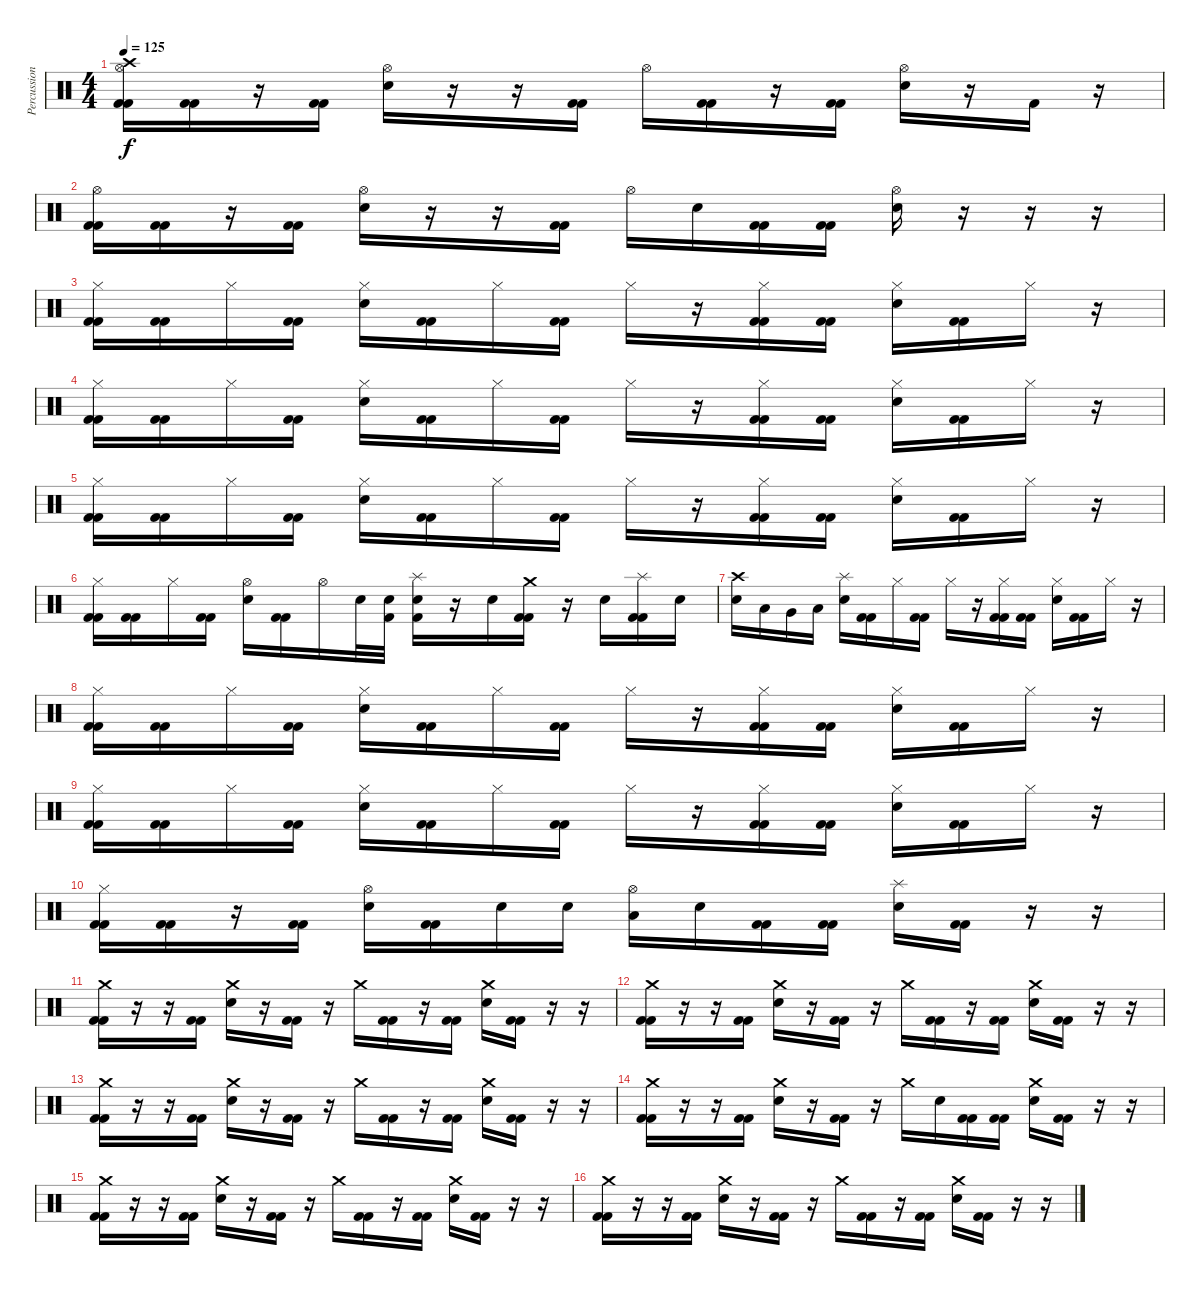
\track ("Percussion" "Percussion") {instrument percussion}
\staff {score}
\articulation defaults
\ts (4 4)
\tempo 125
\clef neutral
\ks c
("Hi-Hat (open)" "Crash high (hit)" "Kick (hit) 2" "Kick (hit) 2").16{dy f} ("Kick (hit) 2" "Kick (hit) 2").16 r.16 ("Kick (hit) 2" "Kick (hit) 2").16 ("Hi-Hat (open)" "Electric Snare (hit)").16 r.16 r.16 ("Kick (hit) 2" "Kick (hit) 2").16 "Hi-Hat (open)".16 ("Kick (hit) 2" "Kick (hit) 2").16 r.16 ("Kick (hit) 2" "Kick (hit) 2").16 ("Hi-Hat (open)" "Electric Snare (hit)").16 r.16 "Kick (hit) 2".16 r.16 |
("Hi-Hat (open)" "Kick (hit) 2" "Kick (hit) 2").16 ("Kick (hit) 2" "Kick (hit) 2").16 r.16 ("Kick (hit) 2" "Kick (hit) 2").16 ("Hi-Hat (open)" "Electric Snare (hit)").16 r.16 r.16 ("Kick (hit) 2" "Kick (hit) 2").16 "Hi-Hat (open)".16 "Electric Snare (hit)".16 ("Kick (hit) 2" "Kick (hit) 2").16 ("Kick (hit) 2" "Kick (hit) 2").16 ("Hi-Hat (open)" "Electric Snare (hit)").16 r.16 r.16 r.16 |
("Hi-Hat (closed)" "Kick (hit) 2" "Kick (hit) 2").16 ("Kick (hit) 2" "Kick (hit) 2").16 "Hi-Hat (closed)".16 ("Kick (hit) 2" "Kick (hit) 2").16 ("Hi-Hat (closed)" "Electric Snare (hit)").16 ("Kick (hit) 2" "Kick (hit) 2").16 "Hi-Hat (closed)".16 ("Kick (hit) 2" "Kick (hit) 2").16 "Hi-Hat (closed)".16 r.16 ("Hi-Hat (closed)" "Kick (hit) 2" "Kick (hit) 2").16 ("Kick (hit) 2" "Kick (hit) 2").16 ("Hi-Hat (closed)" "Electric Snare (hit)").16 ("Kick (hit) 2" "Kick (hit) 2").16 "Hi-Hat (closed)".16 r.16 |
("Hi-Hat (closed)" "Kick (hit) 2" "Kick (hit) 2").16 ("Kick (hit) 2" "Kick (hit) 2").16 "Hi-Hat (closed)".16 ("Kick (hit) 2" "Kick (hit) 2").16 ("Hi-Hat (closed)" "Electric Snare (hit)").16 ("Kick (hit) 2" "Kick (hit) 2").16 "Hi-Hat (closed)".16 ("Kick (hit) 2" "Kick (hit) 2").16 "Hi-Hat (closed)".16 r.16 ("Hi-Hat (closed)" "Kick (hit) 2" "Kick (hit) 2").16 ("Kick (hit) 2" "Kick (hit) 2").16 ("Hi-Hat (closed)" "Electric Snare (hit)").16 ("Kick (hit) 2" "Kick (hit) 2").16 "Hi-Hat (closed)".16 r.16 |
("Hi-Hat (closed)" "Kick (hit) 2" "Kick (hit) 2").16 ("Kick (hit) 2" "Kick (hit) 2").16 "Hi-Hat (closed)".16 ("Kick (hit) 2" "Kick (hit) 2").16 ("Hi-Hat (closed)" "Electric Snare (hit)").16 ("Kick (hit) 2" "Kick (hit) 2").16 "Hi-Hat (closed)".16 ("Kick (hit) 2" "Kick (hit) 2").16 "Hi-Hat (closed)".16 r.16 ("Hi-Hat (closed)" "Kick (hit) 2" "Kick (hit) 2").16 ("Kick (hit) 2" "Kick (hit) 2").16 ("Hi-Hat (closed)" "Electric Snare (hit)").16 ("Kick (hit) 2" "Kick (hit) 2").16 "Hi-Hat (closed)".16 r.16 |
("Hi-Hat (closed)" "Kick (hit) 2" "Kick (hit) 2").16 ("Kick (hit) 2" "Kick (hit) 2").16 "Hi-Hat (closed)".16 ("Kick (hit) 2" "Kick (hit) 2").16 ("Hi-Hat (open)" "Electric Snare (hit)").16 ("Kick (hit) 2" "Kick (hit) 2").16 "Hi-Hat (open)".16 "Electric Snare (hit)".32 ("Electric Snare (hit)" "Kick (hit) 2").32 ("Splash (hit)" "Electric Snare (hit)" "Kick (hit) 2").16 r.16 "Electric Snare (hit)".16 ("Crash medium (hit)" "Kick (hit) 2" "Kick (hit) 2").16 r.16 "Electric Snare (hit)".16 ("Splash (hit)" "Kick (hit) 2" "Kick (hit) 2").16 "Electric Snare (hit)".16 |
("Crash high (hit)" "Electric Snare (hit)").16 "Low Tom (hit)".16 "Very Low Tom (hit)".16 "Low Floor Tom (hit)".16 ("Splash (hit)" "Electric Snare (hit)").16 ("Kick (hit) 2" "Kick (hit) 2").16 "Hi-Hat (closed)".16 ("Kick (hit) 2" "Kick (hit) 2").16 "Hi-Hat (closed)".16 r.16 ("Hi-Hat (closed)" "Kick (hit) 2" "Kick (hit) 2").16 ("Kick (hit) 2" "Kick (hit) 2").16 ("Hi-Hat (closed)" "Electric Snare (hit)").16 ("Kick (hit) 2" "Kick (hit) 2").16 "Hi-Hat (closed)".16 r.16 |
("Hi-Hat (closed)" "Kick (hit) 2" "Kick (hit) 2").16 ("Kick (hit) 2" "Kick (hit) 2").16 "Hi-Hat (closed)".16 ("Kick (hit) 2" "Kick (hit) 2").16 ("Hi-Hat (closed)" "Electric Snare (hit)").16 ("Kick (hit) 2" "Kick (hit) 2").16 "Hi-Hat (closed)".16 ("Kick (hit) 2" "Kick (hit) 2").16 "Hi-Hat (closed)".16 r.16 ("Hi-Hat (closed)" "Kick (hit) 2" "Kick (hit) 2").16 ("Kick (hit) 2" "Kick (hit) 2").16 ("Hi-Hat (closed)" "Electric Snare (hit)").16 ("Kick (hit) 2" "Kick (hit) 2").16 "Hi-Hat (closed)".16 r.16 |
("Hi-Hat (closed)" "Kick (hit) 2" "Kick (hit) 2").16 ("Kick (hit) 2" "Kick (hit) 2").16 "Hi-Hat (closed)".16 ("Kick (hit) 2" "Kick (hit) 2").16 ("Hi-Hat (closed)" "Electric Snare (hit)").16 ("Kick (hit) 2" "Kick (hit) 2").16 "Hi-Hat (closed)".16 ("Kick (hit) 2" "Kick (hit) 2").16 "Hi-Hat (closed)".16 r.16 ("Hi-Hat (closed)" "Kick (hit) 2" "Kick (hit) 2").16 ("Kick (hit) 2" "Kick (hit) 2").16 ("Hi-Hat (closed)" "Electric Snare (hit)").16 ("Kick (hit) 2" "Kick (hit) 2").16 "Hi-Hat (closed)".16 r.16 |
("Hi-Hat (closed)" "Kick (hit) 2" "Kick (hit) 2").16 ("Kick (hit) 2" "Kick (hit) 2").16 r.16 ("Kick (hit) 2" "Kick (hit) 2").16 ("Hi-Hat (open)" "Electric Snare (hit)").16 ("Kick (hit) 2" "Kick (hit) 2").16 "Electric Snare (hit)".16 "Electric Snare (hit)".16 ("Hi-Hat (open)" "Low Tom (hit)").16 "Electric Snare (hit)".16 ("Kick (hit) 2" "Kick (hit) 2").16 ("Kick (hit) 2" "Kick (hit) 2").16 ("Splash (hit)" "Electric Snare (hit)").16 ("Kick (hit) 2" "Kick (hit) 2").16 r.16 r.16 |
("Crash medium (hit)" "Kick (hit) 2" "Kick (hit) 2").16 r.16 r.16 ("Kick (hit) 2" "Kick (hit) 2").16 ("Crash medium (hit)" "Electric Snare (hit)").16 r.16 ("Kick (hit) 2" "Kick (hit) 2").16 r.16 "Crash medium (hit)".16 ("Kick (hit) 2" "Kick (hit) 2").16 r.16 ("Kick (hit) 2" "Kick (hit) 2").16 ("Crash medium (hit)" "Electric Snare (hit)").16 ("Kick (hit) 2" "Kick (hit) 2").16 r.16 r.16 |
("Crash medium (hit)" "Kick (hit) 2" "Kick (hit) 2").16 r.16 r.16 ("Kick (hit) 2" "Kick (hit) 2").16 ("Crash medium (hit)" "Electric Snare (hit)").16 r.16 ("Kick (hit) 2" "Kick (hit) 2").16 r.16 "Crash medium (hit)".16 ("Kick (hit) 2" "Kick (hit) 2").16 r.16 ("Kick (hit) 2" "Kick (hit) 2").16 ("Crash medium (hit)" "Electric Snare (hit)").16 ("Kick (hit) 2" "Kick (hit) 2").16 r.16 r.16 |
("Crash medium (hit)" "Kick (hit) 2" "Kick (hit) 2").16 r.16 r.16 ("Kick (hit) 2" "Kick (hit) 2").16 ("Crash medium (hit)" "Electric Snare (hit)").16 r.16 ("Kick (hit) 2" "Kick (hit) 2").16 r.16 "Crash medium (hit)".16 ("Kick (hit) 2" "Kick (hit) 2").16 r.16 ("Kick (hit) 2" "Kick (hit) 2").16 ("Crash medium (hit)" "Electric Snare (hit)").16 ("Kick (hit) 2" "Kick (hit) 2").16 r.16 r.16 |
("Crash medium (hit)" "Kick (hit) 2" "Kick (hit) 2").16 r.16 r.16 ("Kick (hit) 2" "Kick (hit) 2").16 ("Crash medium (hit)" "Electric Snare (hit)").16 r.16 ("Kick (hit) 2" "Kick (hit) 2").16 r.16 "Crash medium (hit)".16 "Electric Snare (hit)".16 ("Kick (hit) 2" "Kick (hit) 2").16 ("Kick (hit) 2" "Kick (hit) 2").16 ("Crash medium (hit)" "Electric Snare (hit)").16 ("Kick (hit) 2" "Kick (hit) 2").16 r.16 r.16 |
("Crash medium (hit)" "Kick (hit) 2" "Kick (hit) 2").16 r.16 r.16 ("Kick (hit) 2" "Kick (hit) 2").16 ("Crash medium (hit)" "Electric Snare (hit)").16 r.16 ("Kick (hit) 2" "Kick (hit) 2").16 r.16 "Crash medium (hit)".16 ("Kick (hit) 2" "Kick (hit) 2").16 r.16 ("Kick (hit) 2" "Kick (hit) 2").16 ("Crash medium (hit)" "Electric Snare (hit)").16 ("Kick (hit) 2" "Kick (hit) 2").16 r.16 r.16 |
("Crash medium (hit)" "Kick (hit) 2" "Kick (hit) 2").16 r.16 r.16 ("Kick (hit) 2" "Kick (hit) 2").16 ("Crash medium (hit)" "Electric Snare (hit)").16 r.16 ("Kick (hit) 2" "Kick (hit) 2").16 r.16 "Crash medium (hit)".16 ("Kick (hit) 2" "Kick (hit) 2").16 r.16 ("Kick (hit) 2" "Kick (hit) 2").16 ("Crash medium (hit)" "Electric Snare (hit)").16 ("Kick (hit) 2" "Kick (hit) 2").16 r.16 r.16
